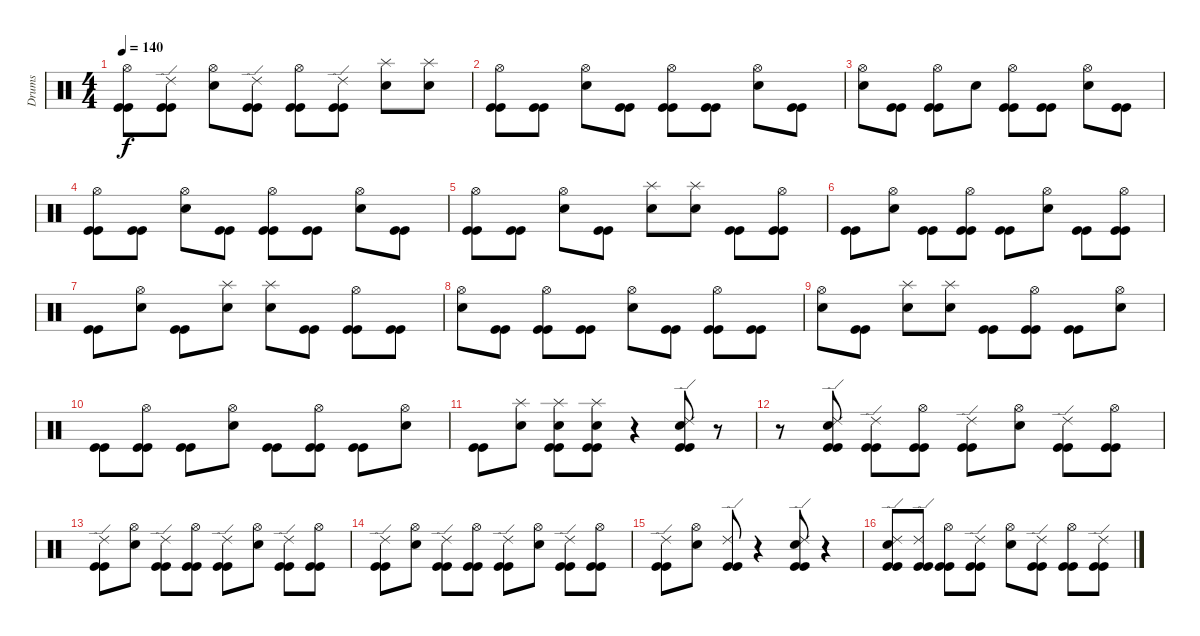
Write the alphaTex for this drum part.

\track ("Drums" "Drums") {instrument percussion}
\staff {score}
\articulation defaults
\ts (4 4)
\tempo 140
\clef neutral
\ks c
("Hi-Hat (open)" "Kick (hit)" "Kick (hit)").8{dy f} ("Ride (edge) 2" "Kick (hit)" "Kick (hit)").8 ("Hi-Hat (open)" "Electric Snare (hit)").8 ("Ride (edge) 2" "Kick (hit)" "Kick (hit)").8 ("Hi-Hat (open)" "Kick (hit)" "Kick (hit)").8 ("Ride (edge) 2" "Kick (hit)" "Kick (hit)").8 ("Splash (hit)" "Electric Snare (hit)").8 ("Splash (hit)" "Electric Snare (hit)").8 |
("Hi-Hat (open)" "Kick (hit)" "Kick (hit)").8 ("Kick (hit)" "Kick (hit)").8 ("Hi-Hat (open)" "Electric Snare (hit)").8 ("Kick (hit)" "Kick (hit)").8 ("Hi-Hat (open)" "Kick (hit)" "Kick (hit)").8 ("Kick (hit)" "Kick (hit)").8 ("Hi-Hat (open)" "Electric Snare (hit)").8 ("Kick (hit)" "Kick (hit)").8 |
("Hi-Hat (open)" "Electric Snare (hit)").8 ("Kick (hit)" "Kick (hit)").8 ("Hi-Hat (open)" "Kick (hit)" "Kick (hit)").8 "Electric Snare (hit)".8 ("Hi-Hat (open)" "Kick (hit)" "Kick (hit)").8 ("Kick (hit)" "Kick (hit)").8 ("Hi-Hat (open)" "Electric Snare (hit)").8 ("Kick (hit)" "Kick (hit)").8 |
("Hi-Hat (open)" "Kick (hit)" "Kick (hit)").8 ("Kick (hit)" "Kick (hit)").8 ("Hi-Hat (open)" "Electric Snare (hit)").8 ("Kick (hit)" "Kick (hit)").8 ("Hi-Hat (open)" "Kick (hit)" "Kick (hit)").8 ("Kick (hit)" "Kick (hit)").8 ("Hi-Hat (open)" "Electric Snare (hit)").8 ("Kick (hit)" "Kick (hit)").8 |
("Hi-Hat (open)" "Kick (hit)" "Kick (hit)").8 ("Kick (hit)" "Kick (hit)").8 ("Hi-Hat (open)" "Electric Snare (hit)").8 ("Kick (hit)" "Kick (hit)").8 ("Splash (hit)" "Electric Snare (hit)").8 ("Splash (hit)" "Electric Snare (hit)").8 ("Kick (hit)" "Kick (hit)").8 ("Hi-Hat (open)" "Kick (hit)" "Kick (hit)").8 |
("Kick (hit)" "Kick (hit)").8 ("Hi-Hat (open)" "Electric Snare (hit)").8 ("Kick (hit)" "Kick (hit)").8 ("Hi-Hat (open)" "Kick (hit)" "Kick (hit)").8 ("Kick (hit)" "Kick (hit)").8 ("Hi-Hat (open)" "Electric Snare (hit)").8 ("Kick (hit)" "Kick (hit)").8 ("Hi-Hat (open)" "Kick (hit)" "Kick (hit)").8 |
("Kick (hit)" "Kick (hit)").8 ("Hi-Hat (open)" "Electric Snare (hit)").8 ("Kick (hit)" "Kick (hit)").8 ("Splash (hit)" "Electric Snare (hit)").8 ("Splash (hit)" "Electric Snare (hit)").8 ("Kick (hit)" "Kick (hit)").8 ("Hi-Hat (open)" "Kick (hit)" "Kick (hit)").8 ("Kick (hit)" "Kick (hit)").8 |
("Hi-Hat (open)" "Electric Snare (hit)").8 ("Kick (hit)" "Kick (hit)").8 ("Hi-Hat (open)" "Kick (hit)" "Kick (hit)").8 ("Kick (hit)" "Kick (hit)").8 ("Hi-Hat (open)" "Electric Snare (hit)").8 ("Kick (hit)" "Kick (hit)").8 ("Hi-Hat (open)" "Kick (hit)" "Kick (hit)").8 ("Kick (hit)" "Kick (hit)").8 |
("Hi-Hat (open)" "Electric Snare (hit)").8 ("Kick (hit)" "Kick (hit)").8 ("Splash (hit)" "Electric Snare (hit)").8 ("Splash (hit)" "Electric Snare (hit)").8 ("Kick (hit)" "Kick (hit)").8 ("Hi-Hat (open)" "Kick (hit)" "Kick (hit)").8 ("Kick (hit)" "Kick (hit)").8 ("Hi-Hat (open)" "Electric Snare (hit)").8 |
("Kick (hit)" "Kick (hit)").8 ("Hi-Hat (open)" "Kick (hit)" "Kick (hit)").8 ("Kick (hit)" "Kick (hit)").8 ("Hi-Hat (open)" "Electric Snare (hit)").8 ("Kick (hit)" "Kick (hit)").8 ("Hi-Hat (open)" "Kick (hit)" "Kick (hit)").8 ("Kick (hit)" "Kick (hit)").8 ("Hi-Hat (open)" "Electric Snare (hit)").8 |
("Kick (hit)" "Kick (hit)").8 ("Splash (hit)" "Electric Snare (hit)").8 ("Splash (hit)" "Electric Snare (hit)" "Kick (hit)" "Kick (hit)").8 ("Splash (hit)" "Electric Snare (hit)" "Kick (hit)" "Kick (hit)").8 r.4 ("Ride (edge) 2" "Electric Snare (hit)" "Kick (hit)" "Kick (hit)").8 r.8 |
r.8 ("Ride (edge) 2" "Electric Snare (hit)" "Kick (hit)" "Kick (hit)").8 ("Ride (edge) 2" "Kick (hit)" "Kick (hit)").8 ("Hi-Hat (open)" "Kick (hit)" "Kick (hit)").8 ("Ride (edge) 2" "Kick (hit)" "Kick (hit)").8 ("Hi-Hat (open)" "Electric Snare (hit)").8 ("Ride (edge) 2" "Kick (hit)" "Kick (hit)").8 ("Hi-Hat (open)" "Kick (hit)" "Kick (hit)").8 |
("Ride (edge) 2" "Kick (hit)" "Kick (hit)").8 ("Hi-Hat (open)" "Electric Snare (hit)").8 ("Ride (edge) 2" "Kick (hit)" "Kick (hit)").8 ("Hi-Hat (open)" "Kick (hit)" "Kick (hit)").8 ("Ride (edge) 2" "Kick (hit)" "Kick (hit)").8 ("Hi-Hat (open)" "Electric Snare (hit)").8 ("Ride (edge) 2" "Kick (hit)" "Kick (hit)").8 ("Hi-Hat (open)" "Kick (hit)" "Kick (hit)").8 |
("Ride (edge) 2" "Kick (hit)" "Kick (hit)").8 ("Hi-Hat (open)" "Electric Snare (hit)").8 ("Ride (edge) 2" "Kick (hit)" "Kick (hit)").8 ("Hi-Hat (open)" "Kick (hit)" "Kick (hit)").8 ("Ride (edge) 2" "Kick (hit)" "Kick (hit)").8 ("Hi-Hat (open)" "Electric Snare (hit)").8 ("Ride (edge) 2" "Kick (hit)" "Kick (hit)").8 ("Hi-Hat (open)" "Kick (hit)" "Kick (hit)").8 |
("Ride (edge) 2" "Kick (hit)" "Kick (hit)").8 ("Hi-Hat (open)" "Electric Snare (hit)").8 ("Ride (edge) 2" "Kick (hit)" "Kick (hit)").8 r.4 ("Ride (edge) 2" "Electric Snare (hit)" "Kick (hit)" "Kick (hit)").8 r.4 |
("Ride (edge) 2" "Electric Snare (hit)" "Kick (hit)" "Kick (hit)").8 ("Ride (edge) 2" "Kick (hit)" "Kick (hit)").8 ("Hi-Hat (open)" "Kick (hit)" "Kick (hit)").8 ("Ride (edge) 2" "Kick (hit)" "Kick (hit)").8 ("Hi-Hat (open)" "Electric Snare (hit)").8 ("Ride (edge) 2" "Kick (hit)" "Kick (hit)").8 ("Hi-Hat (open)" "Kick (hit)" "Kick (hit)").8 ("Ride (edge) 2" "Kick (hit)" "Kick (hit)").8
